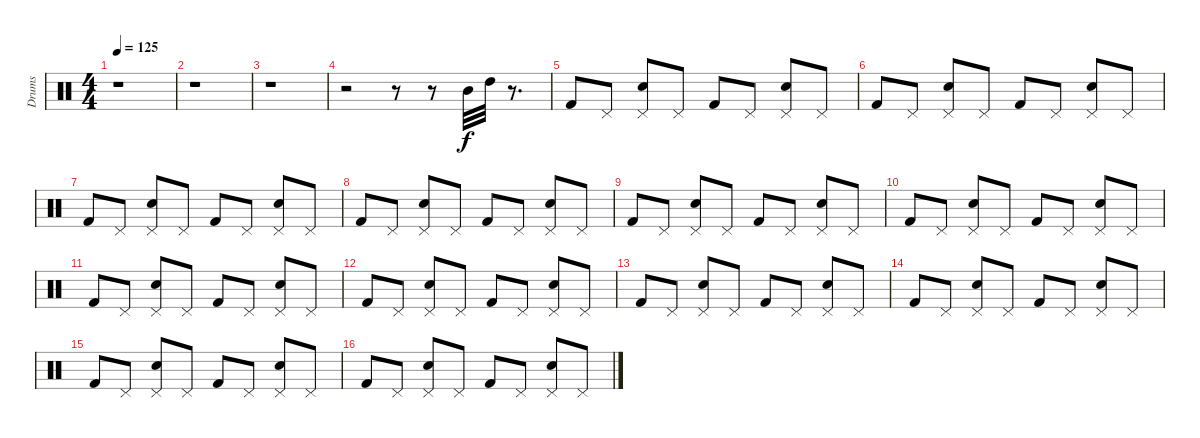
\track ("Drums" "Drums") {instrument percussion}
\staff {score}
\articulation defaults
\ts (4 4)
\tempo 125
\clef neutral
\ks c
r.1{dy f} |
r.1 |
r.1 |
r.2 r.8 r.8 "Mid Tom (hit)".32 "High Tom (hit)".32 r.8{d} |
"Kick (hit) 2".8 "Pedal Hi-Hat (hit)".8 ("Pedal Hi-Hat (hit)" "Electric Snare (hit)").8 "Pedal Hi-Hat (hit)".8 "Kick (hit) 2".8 "Pedal Hi-Hat (hit)".8 ("Pedal Hi-Hat (hit)" "Electric Snare (hit)").8 "Pedal Hi-Hat (hit)".8 |
"Kick (hit) 2".8 "Pedal Hi-Hat (hit)".8 ("Pedal Hi-Hat (hit)" "Electric Snare (hit)").8 "Pedal Hi-Hat (hit)".8 "Kick (hit) 2".8 "Pedal Hi-Hat (hit)".8 ("Pedal Hi-Hat (hit)" "Electric Snare (hit)").8 "Pedal Hi-Hat (hit)".8 |
"Kick (hit) 2".8 "Pedal Hi-Hat (hit)".8 ("Pedal Hi-Hat (hit)" "Electric Snare (hit)").8 "Pedal Hi-Hat (hit)".8 "Kick (hit) 2".8 "Pedal Hi-Hat (hit)".8 ("Pedal Hi-Hat (hit)" "Electric Snare (hit)").8 "Pedal Hi-Hat (hit)".8 |
"Kick (hit) 2".8 "Pedal Hi-Hat (hit)".8 ("Pedal Hi-Hat (hit)" "Electric Snare (hit)").8 "Pedal Hi-Hat (hit)".8 "Kick (hit) 2".8 "Pedal Hi-Hat (hit)".8 ("Pedal Hi-Hat (hit)" "Electric Snare (hit)").8 "Pedal Hi-Hat (hit)".8 |
"Kick (hit) 2".8 "Pedal Hi-Hat (hit)".8 ("Pedal Hi-Hat (hit)" "Electric Snare (hit)").8 "Pedal Hi-Hat (hit)".8 "Kick (hit) 2".8 "Pedal Hi-Hat (hit)".8 ("Pedal Hi-Hat (hit)" "Electric Snare (hit)").8 "Pedal Hi-Hat (hit)".8 |
"Kick (hit) 2".8 "Pedal Hi-Hat (hit)".8 ("Pedal Hi-Hat (hit)" "Electric Snare (hit)").8 "Pedal Hi-Hat (hit)".8 "Kick (hit) 2".8 "Pedal Hi-Hat (hit)".8 ("Pedal Hi-Hat (hit)" "Electric Snare (hit)").8 "Pedal Hi-Hat (hit)".8 |
"Kick (hit) 2".8 "Pedal Hi-Hat (hit)".8 ("Pedal Hi-Hat (hit)" "Electric Snare (hit)").8 "Pedal Hi-Hat (hit)".8 "Kick (hit) 2".8 "Pedal Hi-Hat (hit)".8 ("Pedal Hi-Hat (hit)" "Electric Snare (hit)").8 "Pedal Hi-Hat (hit)".8 |
"Kick (hit) 2".8 "Pedal Hi-Hat (hit)".8 ("Pedal Hi-Hat (hit)" "Electric Snare (hit)").8 "Pedal Hi-Hat (hit)".8 "Kick (hit) 2".8 "Pedal Hi-Hat (hit)".8 ("Pedal Hi-Hat (hit)" "Electric Snare (hit)").8 "Pedal Hi-Hat (hit)".8 |
"Kick (hit) 2".8 "Pedal Hi-Hat (hit)".8 ("Pedal Hi-Hat (hit)" "Electric Snare (hit)").8 "Pedal Hi-Hat (hit)".8 "Kick (hit) 2".8 "Pedal Hi-Hat (hit)".8 ("Pedal Hi-Hat (hit)" "Electric Snare (hit)").8 "Pedal Hi-Hat (hit)".8 |
"Kick (hit) 2".8 "Pedal Hi-Hat (hit)".8 ("Pedal Hi-Hat (hit)" "Electric Snare (hit)").8 "Pedal Hi-Hat (hit)".8 "Kick (hit) 2".8 "Pedal Hi-Hat (hit)".8 ("Pedal Hi-Hat (hit)" "Electric Snare (hit)").8 "Pedal Hi-Hat (hit)".8 |
"Kick (hit) 2".8 "Pedal Hi-Hat (hit)".8 ("Pedal Hi-Hat (hit)" "Electric Snare (hit)").8 "Pedal Hi-Hat (hit)".8 "Kick (hit) 2".8 "Pedal Hi-Hat (hit)".8 ("Pedal Hi-Hat (hit)" "Electric Snare (hit)").8 "Pedal Hi-Hat (hit)".8 |
"Kick (hit) 2".8 "Pedal Hi-Hat (hit)".8 ("Pedal Hi-Hat (hit)" "Electric Snare (hit)").8 "Pedal Hi-Hat (hit)".8 "Kick (hit) 2".8 "Pedal Hi-Hat (hit)".8 ("Pedal Hi-Hat (hit)" "Electric Snare (hit)").8 "Pedal Hi-Hat (hit)".8
